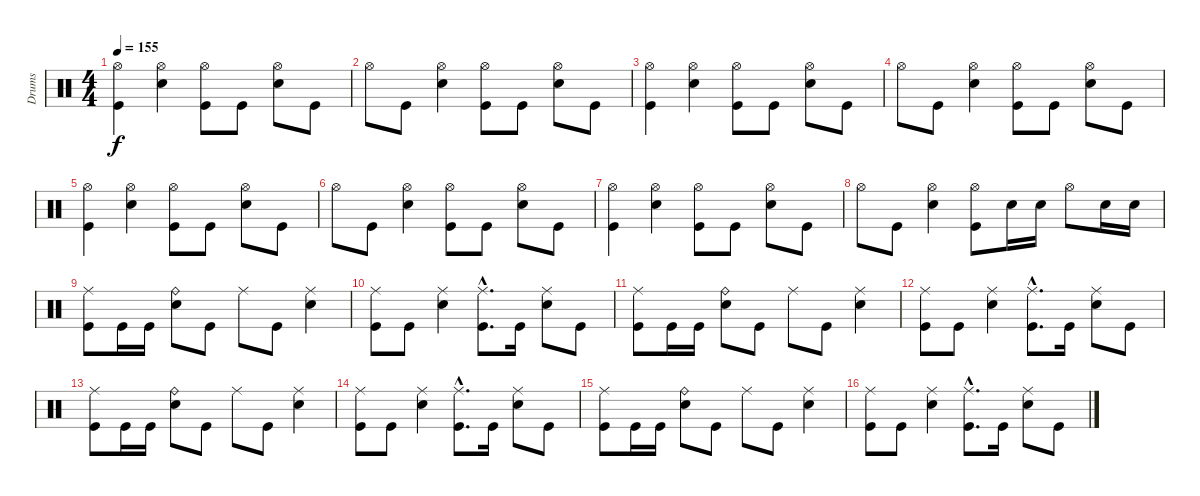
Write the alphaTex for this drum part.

\track ("Drums" "Drums") {instrument percussion}
\staff {score}
\articulation defaults
\ts (4 4)
\tempo 155
\clef neutral
\ks c
("Kick (hit)" "Hi-Hat (open)").4{dy f} ("Snare (hit) 2" "Hi-Hat (open)").4 ("Kick (hit)" "Hi-Hat (open)").8 "Kick (hit)".8 ("Snare (hit) 2" "Hi-Hat (open)").8 "Kick (hit)".8 |
"Hi-Hat (open)".8 "Kick (hit)".8 ("Snare (hit) 2" "Hi-Hat (open)").4 ("Kick (hit)" "Hi-Hat (open)").8 "Kick (hit)".8 ("Snare (hit) 2" "Hi-Hat (open)").8 "Kick (hit)".8 |
("Kick (hit)" "Hi-Hat (open)").4 ("Snare (hit) 2" "Hi-Hat (open)").4 ("Kick (hit)" "Hi-Hat (open)").8 "Kick (hit)".8 ("Snare (hit) 2" "Hi-Hat (open)").8 "Kick (hit)".8 |
"Hi-Hat (open)".8 "Kick (hit)".8 ("Snare (hit) 2" "Hi-Hat (open)").4 ("Kick (hit)" "Hi-Hat (open)").8 "Kick (hit)".8 ("Snare (hit) 2" "Hi-Hat (open)").8 "Kick (hit)".8 |
("Kick (hit)" "Hi-Hat (open)").4 ("Snare (hit) 2" "Hi-Hat (open)").4 ("Kick (hit)" "Hi-Hat (open)").8 "Kick (hit)".8 ("Snare (hit) 2" "Hi-Hat (open)").8 "Kick (hit)".8 |
"Hi-Hat (open)".8 "Kick (hit)".8 ("Snare (hit) 2" "Hi-Hat (open)").4 ("Kick (hit)" "Hi-Hat (open)").8 "Kick (hit)".8 ("Snare (hit) 2" "Hi-Hat (open)").8 "Kick (hit)".8 |
("Kick (hit)" "Hi-Hat (open)").4 ("Snare (hit) 2" "Hi-Hat (open)").4 ("Kick (hit)" "Hi-Hat (open)").8 "Kick (hit)".8 ("Snare (hit) 2" "Hi-Hat (open)").8 "Kick (hit)".8 |
"Hi-Hat (open)".8 "Kick (hit)".8 ("Snare (hit) 2" "Hi-Hat (open)").4 ("Kick (hit)" "Hi-Hat (open)").8 "Snare (hit) 2".16 "Snare (hit) 2".16 "Hi-Hat (open)".8 "Snare (hit) 2".16 "Snare (hit) 2".16 |
("Kick (hit)" "Ride (middle)").8 "Kick (hit)".16 "Kick (hit)".16 ("Snare (hit) 2" "Ride (bell)").8 "Kick (hit)".8 "Ride (middle)".8 "Kick (hit)".8 ("Snare (hit) 2" "Ride (middle)").4 |
("Kick (hit)" "Ride (middle)").8 "Kick (hit)".8 ("Snare (hit) 2" "Ride (middle)").4 ("Kick (hit)"{hac} "Ride (middle)"{hac}).8{d} "Kick (hit)".16 ("Snare (hit) 2" "Ride (middle)").8 "Kick (hit)".8 |
("Kick (hit)" "Ride (middle)").8 "Kick (hit)".16 "Kick (hit)".16 ("Snare (hit) 2" "Ride (bell)").8 "Kick (hit)".8 "Ride (middle)".8 "Kick (hit)".8 ("Snare (hit) 2" "Ride (middle)").4 |
("Kick (hit)" "Ride (middle)").8 "Kick (hit)".8 ("Snare (hit) 2" "Ride (middle)").4 ("Kick (hit)"{hac} "Ride (middle)"{hac}).8{d} "Kick (hit)".16 ("Snare (hit) 2" "Ride (middle)").8 "Kick (hit)".8 |
("Kick (hit)" "Ride (middle)").8 "Kick (hit)".16 "Kick (hit)".16 ("Snare (hit) 2" "Ride (bell)").8 "Kick (hit)".8 "Ride (middle)".8 "Kick (hit)".8 ("Snare (hit) 2" "Ride (middle)").4 |
("Kick (hit)" "Ride (middle)").8 "Kick (hit)".8 ("Snare (hit) 2" "Ride (middle)").4 ("Kick (hit)"{hac} "Ride (middle)"{hac}).8{d} "Kick (hit)".16 ("Snare (hit) 2" "Ride (middle)").8 "Kick (hit)".8 |
("Kick (hit)" "Ride (middle)").8 "Kick (hit)".16 "Kick (hit)".16 ("Snare (hit) 2" "Ride (bell)").8 "Kick (hit)".8 "Ride (middle)".8 "Kick (hit)".8 ("Snare (hit) 2" "Ride (middle)").4 |
("Kick (hit)" "Ride (middle)").8 "Kick (hit)".8 ("Snare (hit) 2" "Ride (middle)").4 ("Kick (hit)"{hac} "Ride (middle)"{hac}).8{d} "Kick (hit)".16 ("Snare (hit) 2" "Ride (middle)").8 "Kick (hit)".8
